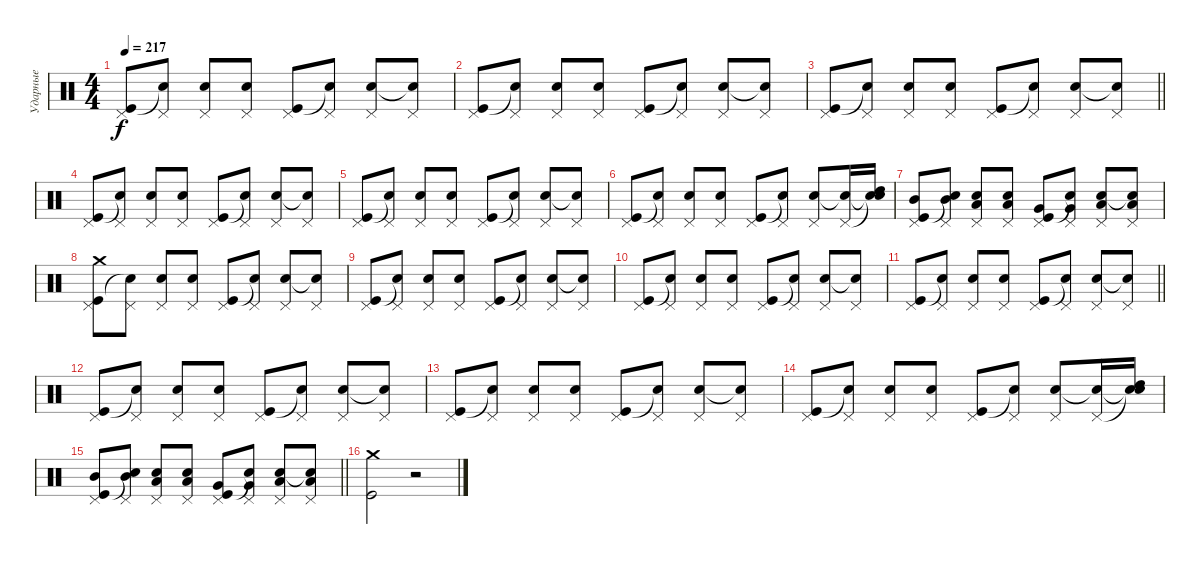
\track ("Ударные" "Ударные") {instrument percussion}
\staff {score}
\articulation defaults
\ts (4 4)
\tempo 217
\clef neutral
\ks c
("Pedal Hi-Hat (hit)" "Kick (hit)").8{dy f} ("Pedal Hi-Hat (hit)" "Snare (hit)"{t}).8 ("Pedal Hi-Hat (hit)" "Snare (hit) 2").8 ("Pedal Hi-Hat (hit)" "Snare (hit) 2").8 ("Pedal Hi-Hat (hit)" "Kick (hit)").8 ("Pedal Hi-Hat (hit)" "Snare (hit)"{t}).8 ("Pedal Hi-Hat (hit)" "Snare (hit) 2").8 ("Pedal Hi-Hat (hit)" "Snare (hit)"{t}).8 |
("Pedal Hi-Hat (hit)" "Kick (hit)").8 ("Pedal Hi-Hat (hit)" "Snare (hit)"{t}).8 ("Pedal Hi-Hat (hit)" "Snare (hit) 2").8 ("Pedal Hi-Hat (hit)" "Snare (hit) 2").8 ("Pedal Hi-Hat (hit)" "Kick (hit)").8 ("Pedal Hi-Hat (hit)" "Snare (hit)"{t}).8 ("Pedal Hi-Hat (hit)" "Snare (hit) 2").8 ("Pedal Hi-Hat (hit)" "Snare (hit)"{t}).8 |
\barLineRight lightlight
("Pedal Hi-Hat (hit)" "Kick (hit)").8 ("Pedal Hi-Hat (hit)" "Snare (hit)"{t}).8 ("Pedal Hi-Hat (hit)" "Snare (hit) 2").8 ("Pedal Hi-Hat (hit)" "Snare (hit) 2").8 ("Pedal Hi-Hat (hit)" "Kick (hit)").8 ("Pedal Hi-Hat (hit)" "Snare (hit)"{t}).8 ("Pedal Hi-Hat (hit)" "Snare (hit) 2").8 ("Pedal Hi-Hat (hit)" "Snare (hit)"{t}).8 |
("Pedal Hi-Hat (hit)" "Kick (hit)").8 ("Pedal Hi-Hat (hit)" "Snare (hit)"{t}).8 ("Pedal Hi-Hat (hit)" "Snare (hit) 2").8 ("Pedal Hi-Hat (hit)" "Snare (hit) 2").8 ("Pedal Hi-Hat (hit)" "Kick (hit)").8 ("Pedal Hi-Hat (hit)" "Snare (hit)"{t}).8 ("Pedal Hi-Hat (hit)" "Snare (hit) 2").8 ("Pedal Hi-Hat (hit)" "Snare (hit)"{t}).8 |
("Pedal Hi-Hat (hit)" "Kick (hit)").8 ("Pedal Hi-Hat (hit)" "Snare (hit)"{t}).8 ("Pedal Hi-Hat (hit)" "Snare (hit) 2").8 ("Pedal Hi-Hat (hit)" "Snare (hit) 2").8 ("Pedal Hi-Hat (hit)" "Kick (hit)").8 ("Pedal Hi-Hat (hit)" "Snare (hit)"{t}).8 ("Pedal Hi-Hat (hit)" "Snare (hit) 2").8 ("Pedal Hi-Hat (hit)" "Snare (hit)"{t}).8 |
("Pedal Hi-Hat (hit)" "Kick (hit)").8 ("Pedal Hi-Hat (hit)" "Snare (hit)"{t}).8 ("Pedal Hi-Hat (hit)" "Snare (hit) 2").8 ("Pedal Hi-Hat (hit)" "Snare (hit) 2").8 ("Pedal Hi-Hat (hit)" "Kick (hit)").8 ("Pedal Hi-Hat (hit)" "Snare (hit)"{t}).8 ("Pedal Hi-Hat (hit)" "Snare (hit) 2").8 ("Pedal Hi-Hat (hit)" "Snare (hit)"{t}).16 ("Snare (hit)"{t} "Snare (hit)"{t} "High Tom (hit)").16 |
("Pedal Hi-Hat (hit)" "Kick (hit)" "Mid Tom (hit)").8 ("Pedal Hi-Hat (hit)" "Snare (hit)"{t} "Mid Tom (hit)").8 ("Pedal Hi-Hat (hit)" "Snare (hit) 2" "Low Tom (hit)").8 ("Pedal Hi-Hat (hit)" "Snare (hit) 2" "Low Tom (hit)").8 ("Pedal Hi-Hat (hit)" "Kick (hit)" "Very Low Tom (hit)").8 ("Pedal Hi-Hat (hit)" "Snare (hit)"{t} "Very Low Tom (hit)").8 ("Pedal Hi-Hat (hit)" "Snare (hit) 2" "Low Floor Tom (hit)").8 ("Pedal Hi-Hat (hit)" "Snare (hit)"{t} "Low Floor Tom (hit)").8 |
("Pedal Hi-Hat (hit)" "Kick (hit)" "Crash medium (hit)").8 ("Pedal Hi-Hat (hit)" "Snare (hit)"{t}).8 ("Pedal Hi-Hat (hit)" "Snare (hit) 2").8 ("Pedal Hi-Hat (hit)" "Snare (hit) 2").8 ("Pedal Hi-Hat (hit)" "Kick (hit)").8 ("Pedal Hi-Hat (hit)" "Snare (hit)"{t}).8 ("Pedal Hi-Hat (hit)" "Snare (hit) 2").8 ("Pedal Hi-Hat (hit)" "Snare (hit)"{t}).8 |
("Pedal Hi-Hat (hit)" "Kick (hit)").8 ("Pedal Hi-Hat (hit)" "Snare (hit)"{t}).8 ("Pedal Hi-Hat (hit)" "Snare (hit) 2").8 ("Pedal Hi-Hat (hit)" "Snare (hit) 2").8 ("Pedal Hi-Hat (hit)" "Kick (hit)").8 ("Pedal Hi-Hat (hit)" "Snare (hit)"{t}).8 ("Pedal Hi-Hat (hit)" "Snare (hit) 2").8 ("Pedal Hi-Hat (hit)" "Snare (hit)"{t}).8 |
("Pedal Hi-Hat (hit)" "Kick (hit)").8 ("Pedal Hi-Hat (hit)" "Snare (hit)"{t}).8 ("Pedal Hi-Hat (hit)" "Snare (hit) 2").8 ("Pedal Hi-Hat (hit)" "Snare (hit) 2").8 ("Pedal Hi-Hat (hit)" "Kick (hit)").8 ("Pedal Hi-Hat (hit)" "Snare (hit)"{t}).8 ("Pedal Hi-Hat (hit)" "Snare (hit) 2").8 ("Pedal Hi-Hat (hit)" "Snare (hit)"{t}).8 |
\barLineRight lightlight
("Pedal Hi-Hat (hit)" "Kick (hit)").8 ("Pedal Hi-Hat (hit)" "Snare (hit)"{t}).8 ("Pedal Hi-Hat (hit)" "Snare (hit) 2").8 ("Pedal Hi-Hat (hit)" "Snare (hit) 2").8 ("Pedal Hi-Hat (hit)" "Kick (hit)").8 ("Pedal Hi-Hat (hit)" "Snare (hit)"{t}).8 ("Pedal Hi-Hat (hit)" "Snare (hit) 2").8 ("Pedal Hi-Hat (hit)" "Snare (hit)"{t}).8 |
("Pedal Hi-Hat (hit)" "Kick (hit)").8 ("Pedal Hi-Hat (hit)" "Snare (hit)"{t}).8 ("Pedal Hi-Hat (hit)" "Snare (hit) 2").8 ("Pedal Hi-Hat (hit)" "Snare (hit) 2").8 ("Pedal Hi-Hat (hit)" "Kick (hit)").8 ("Pedal Hi-Hat (hit)" "Snare (hit)"{t}).8 ("Pedal Hi-Hat (hit)" "Snare (hit) 2").8 ("Pedal Hi-Hat (hit)" "Snare (hit)"{t}).8 |
("Pedal Hi-Hat (hit)" "Kick (hit)").8 ("Pedal Hi-Hat (hit)" "Snare (hit)"{t}).8 ("Pedal Hi-Hat (hit)" "Snare (hit) 2").8 ("Pedal Hi-Hat (hit)" "Snare (hit) 2").8 ("Pedal Hi-Hat (hit)" "Kick (hit)").8 ("Pedal Hi-Hat (hit)" "Snare (hit)"{t}).8 ("Pedal Hi-Hat (hit)" "Snare (hit) 2").8 ("Pedal Hi-Hat (hit)" "Snare (hit)"{t}).8 |
("Pedal Hi-Hat (hit)" "Kick (hit)").8 ("Pedal Hi-Hat (hit)" "Snare (hit)"{t}).8 ("Pedal Hi-Hat (hit)" "Snare (hit) 2").8 ("Pedal Hi-Hat (hit)" "Snare (hit) 2").8 ("Pedal Hi-Hat (hit)" "Kick (hit)").8 ("Pedal Hi-Hat (hit)" "Snare (hit)"{t}).8 ("Pedal Hi-Hat (hit)" "Snare (hit) 2").8 ("Pedal Hi-Hat (hit)" "Snare (hit)"{t}).16 ("Snare (hit)"{t} "Snare (hit)"{t} "High Tom (hit)").16 |
\barLineRight lightlight
("Pedal Hi-Hat (hit)" "Kick (hit)" "Mid Tom (hit)").8 ("Pedal Hi-Hat (hit)" "Snare (hit)"{t} "Mid Tom (hit)").8 ("Pedal Hi-Hat (hit)" "Snare (hit) 2" "Low Tom (hit)").8 ("Pedal Hi-Hat (hit)" "Snare (hit) 2" "Low Tom (hit)").8 ("Pedal Hi-Hat (hit)" "Kick (hit)" "Very Low Tom (hit)").8 ("Pedal Hi-Hat (hit)" "Snare (hit)"{t} "Very Low Tom (hit)").8 ("Pedal Hi-Hat (hit)" "Snare (hit) 2" "Low Floor Tom (hit)").8 ("Pedal Hi-Hat (hit)" "Snare (hit)"{t} "Low Floor Tom (hit)").8 |
("Kick (hit)" "Crash medium (hit)").2 r.2
